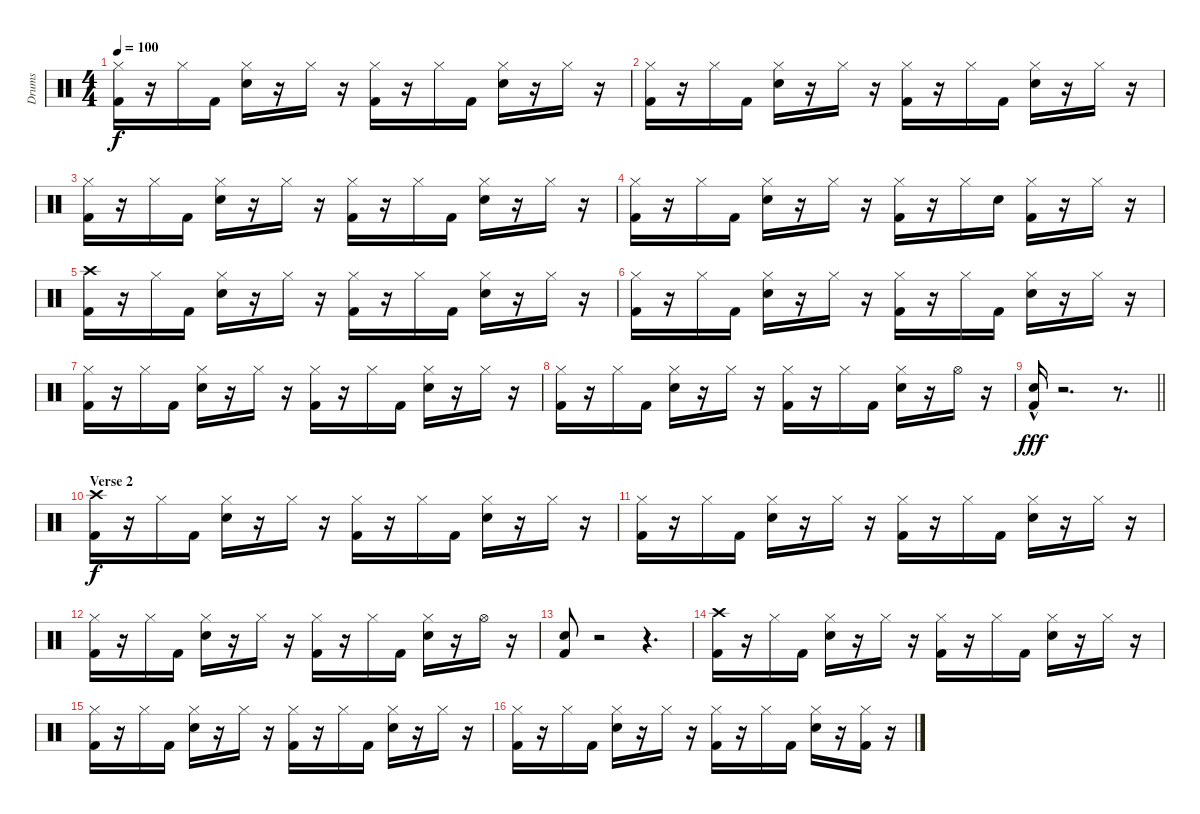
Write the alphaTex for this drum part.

\track ("Drums" "Drums") {instrument percussion}
\staff {score}
\articulation defaults
\ts (4 4)
\tempo 100
\clef neutral
\ks c
("Hi-Hat (closed)" "Kick (hit) 2").16{dy f} r.16 "Hi-Hat (closed)".16 "Kick (hit) 2".16 ("Hi-Hat (closed)" "Electric Snare (hit)").16 r.16 "Hi-Hat (closed)".16 r.16 ("Hi-Hat (closed)" "Kick (hit) 2").16 r.16 "Hi-Hat (closed)".16 "Kick (hit) 2".16 ("Hi-Hat (closed)" "Electric Snare (hit)").16 r.16 "Hi-Hat (closed)".16 r.16 |
("Hi-Hat (closed)" "Kick (hit) 2").16 r.16 "Hi-Hat (closed)".16 "Kick (hit) 2".16 ("Hi-Hat (closed)" "Electric Snare (hit)").16 r.16 "Hi-Hat (closed)".16 r.16 ("Hi-Hat (closed)" "Kick (hit) 2").16 r.16 "Hi-Hat (closed)".16 "Kick (hit) 2".16 ("Hi-Hat (closed)" "Electric Snare (hit)").16 r.16 "Hi-Hat (closed)".16 r.16 |
("Hi-Hat (closed)" "Kick (hit) 2").16 r.16 "Hi-Hat (closed)".16 "Kick (hit) 2".16 ("Hi-Hat (closed)" "Electric Snare (hit)").16 r.16 "Hi-Hat (closed)".16 r.16 ("Hi-Hat (closed)" "Kick (hit) 2").16 r.16 "Hi-Hat (closed)".16 "Kick (hit) 2".16 ("Hi-Hat (closed)" "Electric Snare (hit)").16 r.16 "Hi-Hat (closed)".16 r.16 |
("Hi-Hat (closed)" "Kick (hit) 2").16 r.16 "Hi-Hat (closed)".16 "Kick (hit) 2".16 ("Hi-Hat (closed)" "Electric Snare (hit)").16 r.16 "Hi-Hat (closed)".16 r.16 ("Hi-Hat (closed)" "Kick (hit) 2").16 r.16 "Hi-Hat (closed)".16 "Electric Snare (hit)".16 ("Hi-Hat (closed)" "Kick (hit) 2").16 r.16 "Hi-Hat (closed)".16 r.16 |
("Crash high (hit)" "Kick (hit) 2").16 r.16 "Hi-Hat (closed)".16 "Kick (hit) 2".16 ("Hi-Hat (closed)" "Electric Snare (hit)").16 r.16 "Hi-Hat (closed)".16 r.16 ("Hi-Hat (closed)" "Kick (hit) 2").16 r.16 "Hi-Hat (closed)".16 "Kick (hit) 2".16 ("Hi-Hat (closed)" "Electric Snare (hit)").16 r.16 "Hi-Hat (closed)".16 r.16 |
("Hi-Hat (closed)" "Kick (hit) 2").16 r.16 "Hi-Hat (closed)".16 "Kick (hit) 2".16 ("Hi-Hat (closed)" "Electric Snare (hit)").16 r.16 "Hi-Hat (closed)".16 r.16 ("Hi-Hat (closed)" "Kick (hit) 2").16 r.16 "Hi-Hat (closed)".16 "Kick (hit) 2".16 ("Hi-Hat (closed)" "Electric Snare (hit)").16 r.16 "Hi-Hat (closed)".16 r.16 |
("Hi-Hat (closed)" "Kick (hit) 2").16 r.16 "Hi-Hat (closed)".16 "Kick (hit) 2".16 ("Hi-Hat (closed)" "Electric Snare (hit)").16 r.16 "Hi-Hat (closed)".16 r.16 ("Hi-Hat (closed)" "Kick (hit) 2").16 r.16 "Hi-Hat (closed)".16 "Kick (hit) 2".16 ("Hi-Hat (closed)" "Electric Snare (hit)").16 r.16 "Hi-Hat (closed)".16 r.16 |
("Hi-Hat (closed)" "Kick (hit) 2").16 r.16 "Hi-Hat (closed)".16 "Kick (hit) 2".16 ("Hi-Hat (closed)" "Electric Snare (hit)").16 r.16 "Hi-Hat (closed)".16 r.16 ("Hi-Hat (closed)" "Kick (hit) 2").16 r.16 "Hi-Hat (closed)".16 "Kick (hit) 2".16 ("Hi-Hat (closed)" "Electric Snare (hit)").16 r.16 "Hi-Hat (open)".16 r.16 |
\barLineRight lightlight
("Electric Snare (hit)"{hac} "Kick (hit) 2"{hac}).16{dy fff} r.2{d} r.8{d} |
\section ("" "Verse 2")
("Crash high (hit)" "Kick (hit) 2").16{dy f} r.16 "Hi-Hat (closed)".16 "Kick (hit) 2".16 ("Hi-Hat (closed)" "Electric Snare (hit)").16 r.16 "Hi-Hat (closed)".16 r.16 ("Hi-Hat (closed)" "Kick (hit) 2").16 r.16 "Hi-Hat (closed)".16 "Kick (hit) 2".16 ("Hi-Hat (closed)" "Electric Snare (hit)").16 r.16 "Hi-Hat (closed)".16 r.16 |
("Hi-Hat (closed)" "Kick (hit) 2").16 r.16 "Hi-Hat (closed)".16 "Kick (hit) 2".16 ("Hi-Hat (closed)" "Electric Snare (hit)").16 r.16 "Hi-Hat (closed)".16 r.16 ("Hi-Hat (closed)" "Kick (hit) 2").16 r.16 "Hi-Hat (closed)".16 "Kick (hit) 2".16 ("Hi-Hat (closed)" "Electric Snare (hit)").16 r.16 "Hi-Hat (closed)".16 r.16 |
("Hi-Hat (closed)" "Kick (hit) 2").16 r.16 "Hi-Hat (closed)".16 "Kick (hit) 2".16 ("Hi-Hat (closed)" "Electric Snare (hit)").16 r.16 "Hi-Hat (closed)".16 r.16 ("Hi-Hat (closed)" "Kick (hit) 2").16 r.16 "Hi-Hat (closed)".16 "Kick (hit) 2".16 ("Hi-Hat (closed)" "Electric Snare (hit)").16 r.16 "Hi-Hat (open)".16 r.16 |
("Electric Snare (hit)" "Kick (hit) 2").8 r.2 r.4{d} |
("Crash high (hit)" "Kick (hit) 2").16 r.16 "Hi-Hat (closed)".16 "Kick (hit) 2".16 ("Hi-Hat (closed)" "Electric Snare (hit)").16 r.16 "Hi-Hat (closed)".16 r.16 ("Hi-Hat (closed)" "Kick (hit) 2").16 r.16 "Hi-Hat (closed)".16 "Kick (hit) 2".16 ("Hi-Hat (closed)" "Electric Snare (hit)").16 r.16 "Hi-Hat (closed)".16 r.16 |
("Hi-Hat (closed)" "Kick (hit) 2").16 r.16 "Hi-Hat (closed)".16 "Kick (hit) 2".16 ("Hi-Hat (closed)" "Electric Snare (hit)").16 r.16 "Hi-Hat (closed)".16 r.16 ("Hi-Hat (closed)" "Kick (hit) 2").16 r.16 "Hi-Hat (closed)".16 "Kick (hit) 2".16 ("Hi-Hat (closed)" "Electric Snare (hit)").16 r.16 "Hi-Hat (closed)".16 r.16 |
("Hi-Hat (closed)" "Kick (hit) 2").16 r.16 "Hi-Hat (closed)".16 "Kick (hit) 2".16 ("Hi-Hat (closed)" "Electric Snare (hit)").16 r.16 "Hi-Hat (closed)".16 r.16 ("Hi-Hat (closed)" "Kick (hit) 2").16 r.16 "Hi-Hat (closed)".16 "Kick (hit) 2".16 ("Hi-Hat (closed)" "Electric Snare (hit)").16 r.16 ("Hi-Hat (closed)" "Kick (hit) 2").16 r.16
